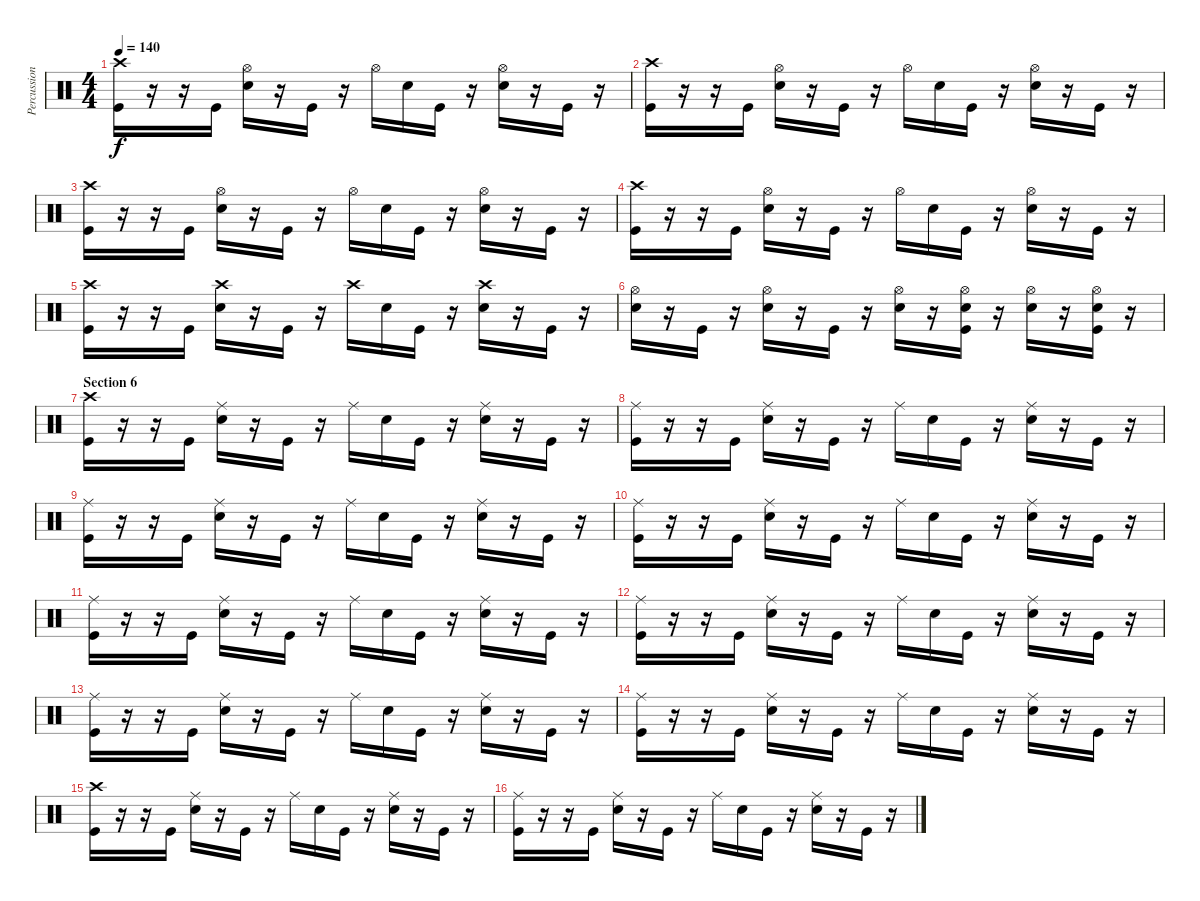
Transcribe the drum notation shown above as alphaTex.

\track ("Percussion" "Percussion") {instrument percussion}
\staff {score}
\articulation defaults
\ts (4 4)
\tempo 140
\clef neutral
\ks c
("Crash high (hit)" "Kick (hit)").16{dy f} r.16 r.16 "Kick (hit)".16 ("Hi-Hat (open)" "Electric Snare (hit)").16 r.16 "Kick (hit)".16 r.16 "Hi-Hat (open)".16 "Electric Snare (hit)".16 "Kick (hit)".16 r.16 ("Hi-Hat (open)" "Electric Snare (hit)").16 r.16 "Kick (hit)".16 r.16 |
("Crash high (hit)" "Kick (hit)").16 r.16 r.16 "Kick (hit)".16 ("Hi-Hat (open)" "Electric Snare (hit)").16 r.16 "Kick (hit)".16 r.16 "Hi-Hat (open)".16 "Electric Snare (hit)".16 "Kick (hit)".16 r.16 ("Hi-Hat (open)" "Electric Snare (hit)").16 r.16 "Kick (hit)".16 r.16 |
("Crash high (hit)" "Kick (hit)").16 r.16 r.16 "Kick (hit)".16 ("Hi-Hat (open)" "Electric Snare (hit)").16 r.16 "Kick (hit)".16 r.16 "Hi-Hat (open)".16 "Electric Snare (hit)".16 "Kick (hit)".16 r.16 ("Hi-Hat (open)" "Electric Snare (hit)").16 r.16 "Kick (hit)".16 r.16 |
("Crash high (hit)" "Kick (hit)").16 r.16 r.16 "Kick (hit)".16 ("Hi-Hat (open)" "Electric Snare (hit)").16 r.16 "Kick (hit)".16 r.16 "Hi-Hat (open)".16 "Electric Snare (hit)".16 "Kick (hit)".16 r.16 ("Hi-Hat (open)" "Electric Snare (hit)").16 r.16 "Kick (hit)".16 r.16 |
("Crash high (hit)" "Kick (hit)").16 r.16 r.16 "Kick (hit)".16 ("Crash high (hit)" "Electric Snare (hit)").16 r.16 "Kick (hit)".16 r.16 "Crash high (hit)".16 "Electric Snare (hit)".16 "Kick (hit)".16 r.16 ("Crash high (hit)" "Electric Snare (hit)").16 r.16 "Kick (hit)".16 r.16 |
("Hi-Hat (open)" "Electric Snare (hit)").16 r.16 "Kick (hit)".16 r.16 ("Hi-Hat (open)" "Electric Snare (hit)").16 r.16 "Kick (hit)".16 r.16 ("Hi-Hat (open)" "Electric Snare (hit)").16 r.16 ("Hi-Hat (open)" "Electric Snare (hit)" "Kick (hit)").16 r.16 ("Hi-Hat (open)" "Electric Snare (hit)").16 r.16 ("Hi-Hat (open)" "Electric Snare (hit)" "Kick (hit)").16 r.16 |
\section ("" "Section 6")
("Crash high (hit)" "Kick (hit)").16 r.16 r.16 "Kick (hit)".16 ("Ride (middle)" "Electric Snare (hit)").16 r.16 "Kick (hit)".16 r.16 "Ride (middle)".16 "Electric Snare (hit)".16 "Kick (hit)".16 r.16 ("Ride (middle)" "Electric Snare (hit)").16 r.16 "Kick (hit)".16 r.16 |
("Ride (middle)" "Kick (hit)").16 r.16 r.16 "Kick (hit)".16 ("Ride (middle)" "Electric Snare (hit)").16 r.16 "Kick (hit)".16 r.16 "Ride (middle)".16 "Electric Snare (hit)".16 "Kick (hit)".16 r.16 ("Ride (middle)" "Electric Snare (hit)").16 r.16 "Kick (hit)".16 r.16 |
("Ride (middle)" "Kick (hit)").16 r.16 r.16 "Kick (hit)".16 ("Ride (middle)" "Electric Snare (hit)").16 r.16 "Kick (hit)".16 r.16 "Ride (middle)".16 "Electric Snare (hit)".16 "Kick (hit)".16 r.16 ("Ride (middle)" "Electric Snare (hit)").16 r.16 "Kick (hit)".16 r.16 |
("Ride (middle)" "Kick (hit)").16 r.16 r.16 "Kick (hit)".16 ("Ride (middle)" "Electric Snare (hit)").16 r.16 "Kick (hit)".16 r.16 "Ride (middle)".16 "Electric Snare (hit)".16 "Kick (hit)".16 r.16 ("Ride (middle)" "Electric Snare (hit)").16 r.16 "Kick (hit)".16 r.16 |
("Ride (middle)" "Kick (hit)").16 r.16 r.16 "Kick (hit)".16 ("Ride (middle)" "Electric Snare (hit)").16 r.16 "Kick (hit)".16 r.16 "Ride (middle)".16 "Electric Snare (hit)".16 "Kick (hit)".16 r.16 ("Ride (middle)" "Electric Snare (hit)").16 r.16 "Kick (hit)".16 r.16 |
("Ride (middle)" "Kick (hit)").16 r.16 r.16 "Kick (hit)".16 ("Ride (middle)" "Electric Snare (hit)").16 r.16 "Kick (hit)".16 r.16 "Ride (middle)".16 "Electric Snare (hit)".16 "Kick (hit)".16 r.16 ("Ride (middle)" "Electric Snare (hit)").16 r.16 "Kick (hit)".16 r.16 |
("Ride (middle)" "Kick (hit)").16 r.16 r.16 "Kick (hit)".16 ("Ride (middle)" "Electric Snare (hit)").16 r.16 "Kick (hit)".16 r.16 "Ride (middle)".16 "Electric Snare (hit)".16 "Kick (hit)".16 r.16 ("Ride (middle)" "Electric Snare (hit)").16 r.16 "Kick (hit)".16 r.16 |
("Ride (middle)" "Kick (hit)").16 r.16 r.16 "Kick (hit)".16 ("Ride (middle)" "Electric Snare (hit)").16 r.16 "Kick (hit)".16 r.16 "Ride (middle)".16 "Electric Snare (hit)".16 "Kick (hit)".16 r.16 ("Ride (middle)" "Electric Snare (hit)").16 r.16 "Kick (hit)".16 r.16 |
("Crash high (hit)" "Kick (hit)").16 r.16 r.16 "Kick (hit)".16 ("Ride (middle)" "Electric Snare (hit)").16 r.16 "Kick (hit)".16 r.16 "Ride (middle)".16 "Electric Snare (hit)".16 "Kick (hit)".16 r.16 ("Ride (middle)" "Electric Snare (hit)").16 r.16 "Kick (hit)".16 r.16 |
("Ride (middle)" "Kick (hit)").16 r.16 r.16 "Kick (hit)".16 ("Ride (middle)" "Electric Snare (hit)").16 r.16 "Kick (hit)".16 r.16 "Ride (middle)".16 "Electric Snare (hit)".16 "Kick (hit)".16 r.16 ("Ride (middle)" "Electric Snare (hit)").16 r.16 "Kick (hit)".16 r.16
